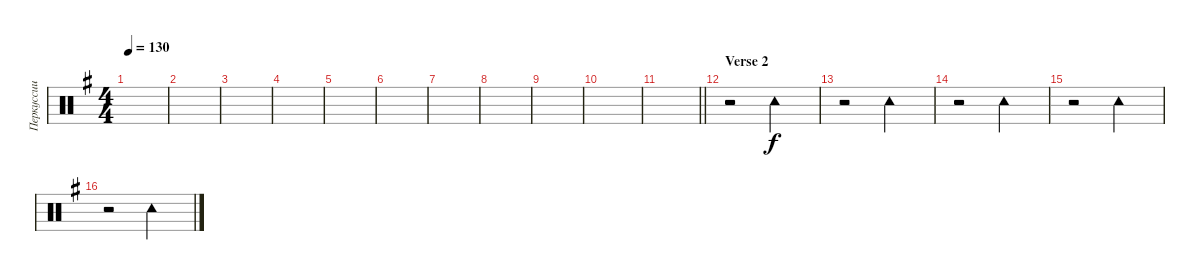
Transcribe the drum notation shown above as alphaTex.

\track ("Перкуссии" "Перкуссии") {instrument percussion}
\staff {score}
\articulation defaults
\ts (4 4)
\tempo 130
\clef neutral
\ks eminor
|
|
|
|
|
|
|
|
|
|
\barLineRight lightlight
|
\section ("" "Verse 2")
r.2 "Tambourine (hit)".2 |
r.2 "Tambourine (hit)".2 |
r.2 "Tambourine (hit)".2 |
r.2 "Tambourine (hit)".2 |
r.2 "Tambourine (hit)".2
